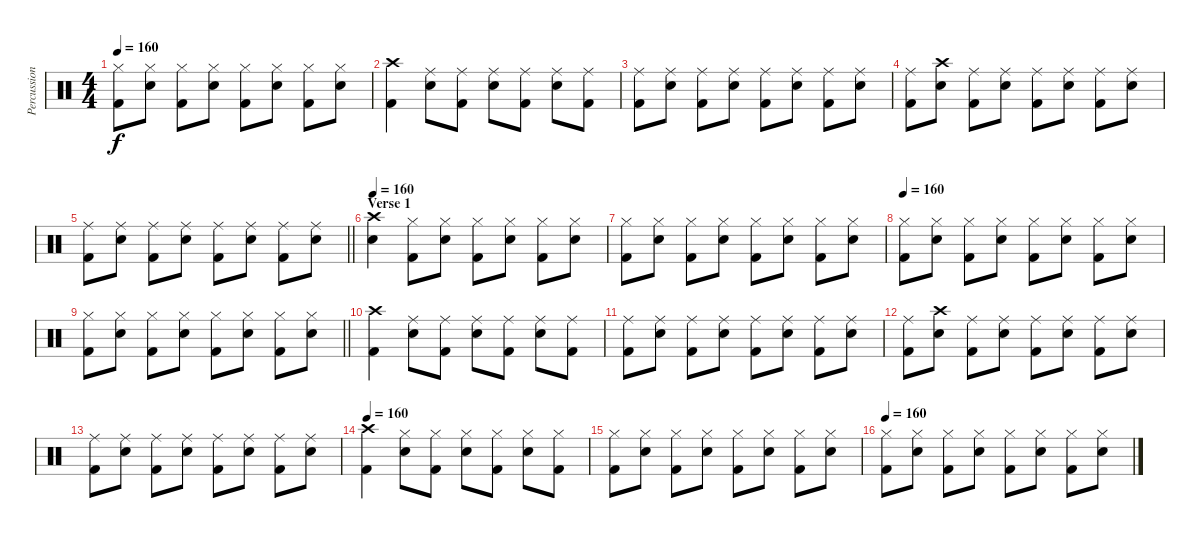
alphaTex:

\track ("Percussion" "Percussion") {instrument percussion}
\staff {score}
\articulation defaults
\ts (4 4)
\tempo 160
\clef neutral
\ks c
("Hi-Hat (closed)" "Kick (hit) 2").8{dy f} ("Hi-Hat (closed)" "Snare (hit) 2").8 ("Hi-Hat (closed)" "Kick (hit) 2").8 ("Hi-Hat (closed)" "Snare (hit) 2").8 ("Hi-Hat (closed)" "Kick (hit) 2").8 ("Hi-Hat (closed)" "Snare (hit) 2").8 ("Hi-Hat (closed)" "Kick (hit) 2").8 ("Hi-Hat (closed)" "Snare (hit) 2").8 |
("Crash high (hit)" "Kick (hit) 2").4 ("Ride (middle)" "Snare (hit) 2").8 ("Ride (middle)" "Kick (hit) 2").8 ("Ride (middle)" "Snare (hit) 2").8 ("Ride (middle)" "Kick (hit) 2").8 ("Ride (middle)" "Snare (hit) 2").8 ("Ride (middle)" "Kick (hit) 2").8 |
("Ride (middle)" "Kick (hit) 2").8 ("Ride (middle)" "Snare (hit) 2").8 ("Ride (middle)" "Kick (hit) 2").8 ("Ride (middle)" "Snare (hit) 2").8 ("Ride (middle)" "Kick (hit) 2").8 ("Ride (middle)" "Snare (hit) 2").8 ("Ride (middle)" "Kick (hit) 2").8 ("Ride (middle)" "Snare (hit) 2").8 |
("Ride (middle)" "Kick (hit) 2").8 ("Crash high (hit)" "Snare (hit) 2").8 ("Ride (middle)" "Kick (hit) 2").8 ("Ride (middle)" "Snare (hit) 2").8 ("Ride (middle)" "Kick (hit) 2").8 ("Ride (middle)" "Snare (hit) 2").8 ("Ride (middle)" "Kick (hit) 2").8 ("Ride (middle)" "Snare (hit) 2").8 |
\barLineRight lightlight
("Ride (middle)" "Kick (hit) 2").8 ("Ride (middle)" "Snare (hit) 2").8 ("Ride (middle)" "Kick (hit) 2").8 ("Ride (middle)" "Snare (hit) 2").8 ("Ride (middle)" "Kick (hit) 2").8 ("Ride (middle)" "Snare (hit) 2").8 ("Ride (middle)" "Kick (hit) 2").8 ("Ride (middle)" "Snare (hit) 2").8 |
\section ("" "Verse 1")
\tempo 160
("Crash high (hit)" "Snare (hit) 2").4 ("Hi-Hat (closed)" "Kick (hit) 2").8 ("Hi-Hat (closed)" "Snare (hit) 2").8 ("Hi-Hat (closed)" "Kick (hit) 2").8 ("Hi-Hat (closed)" "Snare (hit) 2").8 ("Hi-Hat (closed)" "Kick (hit) 2").8 ("Hi-Hat (closed)" "Snare (hit) 2").8 |
("Hi-Hat (closed)" "Kick (hit) 2").8 ("Hi-Hat (closed)" "Snare (hit) 2").8 ("Hi-Hat (closed)" "Kick (hit) 2").8 ("Hi-Hat (closed)" "Snare (hit) 2").8 ("Hi-Hat (closed)" "Kick (hit) 2").8 ("Hi-Hat (closed)" "Snare (hit) 2").8 ("Hi-Hat (closed)" "Kick (hit) 2").8 ("Hi-Hat (closed)" "Snare (hit) 2").8 |
\tempo 160
("Hi-Hat (closed)" "Kick (hit) 2").8 ("Hi-Hat (closed)" "Snare (hit) 2").8 ("Hi-Hat (closed)" "Kick (hit) 2").8 ("Hi-Hat (closed)" "Snare (hit) 2").8 ("Hi-Hat (closed)" "Kick (hit) 2").8 ("Hi-Hat (closed)" "Snare (hit) 2").8 ("Hi-Hat (closed)" "Kick (hit) 2").8 ("Hi-Hat (closed)" "Snare (hit) 2").8 |
\barLineRight lightlight
("Hi-Hat (closed)" "Kick (hit) 2").8 ("Hi-Hat (closed)" "Snare (hit) 2").8 ("Hi-Hat (closed)" "Kick (hit) 2").8 ("Hi-Hat (closed)" "Snare (hit) 2").8 ("Hi-Hat (closed)" "Kick (hit) 2").8 ("Hi-Hat (closed)" "Snare (hit) 2").8 ("Hi-Hat (closed)" "Kick (hit) 2").8 ("Hi-Hat (closed)" "Snare (hit) 2").8 |
("Crash high (hit)" "Kick (hit) 2").4 ("Ride (middle)" "Snare (hit) 2").8 ("Ride (middle)" "Kick (hit) 2").8 ("Ride (middle)" "Snare (hit) 2").8 ("Ride (middle)" "Kick (hit) 2").8 ("Ride (middle)" "Snare (hit) 2").8 ("Ride (middle)" "Kick (hit) 2").8 |
("Ride (middle)" "Kick (hit) 2").8 ("Ride (middle)" "Snare (hit) 2").8 ("Ride (middle)" "Kick (hit) 2").8 ("Ride (middle)" "Snare (hit) 2").8 ("Ride (middle)" "Kick (hit) 2").8 ("Ride (middle)" "Snare (hit) 2").8 ("Ride (middle)" "Kick (hit) 2").8 ("Ride (middle)" "Snare (hit) 2").8 |
("Ride (middle)" "Kick (hit) 2").8 ("Crash high (hit)" "Snare (hit) 2").8 ("Ride (middle)" "Kick (hit) 2").8 ("Ride (middle)" "Snare (hit) 2").8 ("Ride (middle)" "Kick (hit) 2").8 ("Ride (middle)" "Snare (hit) 2").8 ("Ride (middle)" "Kick (hit) 2").8 ("Ride (middle)" "Snare (hit) 2").8 |
("Ride (middle)" "Kick (hit) 2").8 ("Ride (middle)" "Snare (hit) 2").8 ("Ride (middle)" "Kick (hit) 2").8 ("Ride (middle)" "Snare (hit) 2").8 ("Ride (middle)" "Kick (hit) 2").8 ("Ride (middle)" "Snare (hit) 2").8 ("Ride (middle)" "Kick (hit) 2").8 ("Ride (middle)" "Snare (hit) 2").8 |
\tempo 160
("Crash high (hit)" "Kick (hit) 2").4 ("Hi-Hat (closed)" "Snare (hit) 2").8 ("Hi-Hat (closed)" "Kick (hit) 2").8 ("Hi-Hat (closed)" "Snare (hit) 2").8 ("Hi-Hat (closed)" "Kick (hit) 2").8 ("Hi-Hat (closed)" "Snare (hit) 2").8 ("Hi-Hat (closed)" "Kick (hit) 2").8 |
("Hi-Hat (closed)" "Kick (hit) 2").8 ("Hi-Hat (closed)" "Snare (hit) 2").8 ("Hi-Hat (closed)" "Kick (hit) 2").8 ("Hi-Hat (closed)" "Snare (hit) 2").8 ("Hi-Hat (closed)" "Kick (hit) 2").8 ("Hi-Hat (closed)" "Snare (hit) 2").8 ("Hi-Hat (closed)" "Kick (hit) 2").8 ("Hi-Hat (closed)" "Snare (hit) 2").8 |
\tempo 160
("Hi-Hat (closed)" "Kick (hit) 2").8 ("Hi-Hat (closed)" "Snare (hit) 2").8 ("Hi-Hat (closed)" "Kick (hit) 2").8 ("Hi-Hat (closed)" "Snare (hit) 2").8 ("Hi-Hat (closed)" "Kick (hit) 2").8 ("Hi-Hat (closed)" "Snare (hit) 2").8 ("Hi-Hat (closed)" "Kick (hit) 2").8 ("Hi-Hat (closed)" "Snare (hit) 2").8
